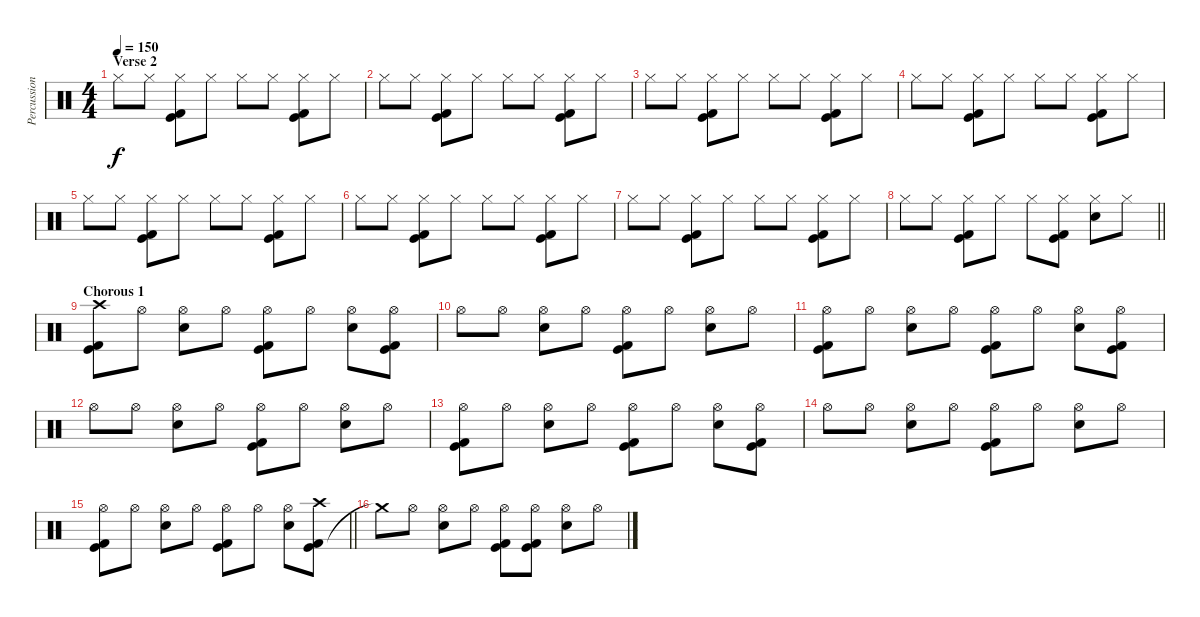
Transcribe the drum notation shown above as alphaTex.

\track ("Percussion" "Percussion") {instrument percussion}
\staff {score}
\articulation defaults
\ts (4 4)
\section ("" "Verse 2")
\tempo 150
\clef neutral
\ks c "Hi-Hat (closed)".8{dy f} "Hi-Hat (closed)".8
("Kick (hit)" "Kick (hit) 2" "Hi-Hat (closed)").8 "Hi-Hat (closed)".8 "Hi-Hat (closed)".8 "Hi-Hat (closed)".8 ("Kick (hit)" "Kick (hit) 2" "Hi-Hat (closed)").8 "Hi-Hat (closed)".8 |
"Hi-Hat (closed)".8 "Hi-Hat (closed)".8 ("Kick (hit)" "Kick (hit) 2" "Hi-Hat (closed)").8 "Hi-Hat (closed)".8 "Hi-Hat (closed)".8 "Hi-Hat (closed)".8 ("Kick (hit)" "Kick (hit) 2" "Hi-Hat (closed)").8 "Hi-Hat (closed)".8 |
"Hi-Hat (closed)".8 "Hi-Hat (closed)".8 ("Kick (hit)" "Kick (hit) 2" "Hi-Hat (closed)").8 "Hi-Hat (closed)".8 "Hi-Hat (closed)".8 "Hi-Hat (closed)".8 ("Kick (hit)" "Kick (hit) 2" "Hi-Hat (closed)").8 "Hi-Hat (closed)".8 |
"Hi-Hat (closed)".8 "Hi-Hat (closed)".8 ("Kick (hit)" "Kick (hit) 2" "Hi-Hat (closed)").8 "Hi-Hat (closed)".8 "Hi-Hat (closed)".8 "Hi-Hat (closed)".8 ("Kick (hit)" "Kick (hit) 2" "Hi-Hat (closed)").8 "Hi-Hat (closed)".8 |
"Hi-Hat (closed)".8 "Hi-Hat (closed)".8 ("Kick (hit)" "Kick (hit) 2" "Hi-Hat (closed)").8 "Hi-Hat (closed)".8 "Hi-Hat (closed)".8 "Hi-Hat (closed)".8 ("Kick (hit)" "Kick (hit) 2" "Hi-Hat (closed)").8 "Hi-Hat (closed)".8 |
"Hi-Hat (closed)".8 "Hi-Hat (closed)".8 ("Kick (hit)" "Kick (hit) 2" "Hi-Hat (closed)").8 "Hi-Hat (closed)".8 "Hi-Hat (closed)".8 "Hi-Hat (closed)".8 ("Kick (hit)" "Kick (hit) 2" "Hi-Hat (closed)").8 "Hi-Hat (closed)".8 |
"Hi-Hat (closed)".8 "Hi-Hat (closed)".8 ("Kick (hit)" "Kick (hit) 2" "Hi-Hat (closed)").8 "Hi-Hat (closed)".8 "Hi-Hat (closed)".8 "Hi-Hat (closed)".8 ("Kick (hit)" "Kick (hit) 2" "Hi-Hat (closed)").8 "Hi-Hat (closed)".8 |
\barLineRight lightlight "Hi-Hat (closed)".8 "Hi-Hat (closed)".8
("Kick (hit)" "Kick (hit) 2" "Hi-Hat (closed)").8 "Hi-Hat (closed)".8 "Hi-Hat (closed)".8 ("Kick (hit)" "Kick (hit) 2" "Hi-Hat (closed)").8 ("Electric Snare (hit)" "Hi-Hat (closed)").8 "Hi-Hat (closed)".8 |
\section ("" "Chorous 1")
("Kick (hit)" "Kick (hit) 2" "Crash high (hit)").8 "Hi-Hat (open)".8 ("Electric Snare (hit)" "Hi-Hat (open)").8 "Hi-Hat (open)".8 ("Kick (hit)" "Kick (hit) 2" "Hi-Hat (open)").8 "Hi-Hat (open)".8 ("Electric Snare (hit)" "Hi-Hat (open)").8 ("Kick (hit)" "Kick (hit) 2" "Hi-Hat (open)").8 |
"Hi-Hat (open)".8 "Hi-Hat (open)".8 ("Electric Snare (hit)" "Hi-Hat (open)").8 "Hi-Hat (open)".8 ("Kick (hit)" "Kick (hit) 2" "Hi-Hat (open)").8 "Hi-Hat (open)".8 ("Electric Snare (hit)" "Hi-Hat (open)").8 "Hi-Hat (open)".8 |
("Kick (hit)" "Kick (hit) 2" "Hi-Hat (open)").8 "Hi-Hat (open)".8 ("Electric Snare (hit)" "Hi-Hat (open)").8 "Hi-Hat (open)".8 ("Kick (hit)" "Kick (hit) 2" "Hi-Hat (open)").8 "Hi-Hat (open)".8 ("Electric Snare (hit)" "Hi-Hat (open)").8 ("Kick (hit)" "Kick (hit) 2" "Hi-Hat (open)").8 |
"Hi-Hat (open)".8 "Hi-Hat (open)".8 ("Electric Snare (hit)" "Hi-Hat (open)").8 "Hi-Hat (open)".8 ("Kick (hit)" "Kick (hit) 2" "Hi-Hat (open)").8 "Hi-Hat (open)".8 ("Electric Snare (hit)" "Hi-Hat (open)").8 "Hi-Hat (open)".8 |
("Kick (hit)" "Kick (hit) 2" "Hi-Hat (open)").8 "Hi-Hat (open)".8 ("Electric Snare (hit)" "Hi-Hat (open)").8 "Hi-Hat (open)".8 ("Kick (hit)" "Kick (hit) 2" "Hi-Hat (open)").8 "Hi-Hat (open)".8 ("Electric Snare (hit)" "Hi-Hat (open)").8 ("Kick (hit)" "Kick (hit) 2" "Hi-Hat (open)").8 |
"Hi-Hat (open)".8 "Hi-Hat (open)".8 ("Electric Snare (hit)" "Hi-Hat (open)").8 "Hi-Hat (open)".8 ("Kick (hit)" "Kick (hit) 2" "Hi-Hat (open)").8 "Hi-Hat (open)".8 ("Electric Snare (hit)" "Hi-Hat (open)").8 "Hi-Hat (open)".8 |
\barLineRight lightlight
("Kick (hit)" "Kick (hit) 2" "Hi-Hat (open)").8 "Hi-Hat (open)".8 ("Electric Snare (hit)" "Hi-Hat (open)").8 "Hi-Hat (open)".8 ("Kick (hit)" "Kick (hit) 2" "Hi-Hat (open)").8 "Hi-Hat (open)".8 ("Electric Snare (hit)" "Hi-Hat (open)").8 ("Kick (hit)" "Kick (hit) 2" "Crash high (hit)").8 |
\section ("" "")
"Crash medium (hit)"{t}.8 "Hi-Hat (open)".8 ("Electric Snare (hit)" "Hi-Hat (open)").8 "Hi-Hat (open)".8 ("Kick (hit)" "Kick (hit) 2" "Hi-Hat (open)").8 ("Kick (hit)" "Kick (hit) 2" "Hi-Hat (open)").8 ("Electric Snare (hit)" "Hi-Hat (open)").8 "Hi-Hat (open)".8
